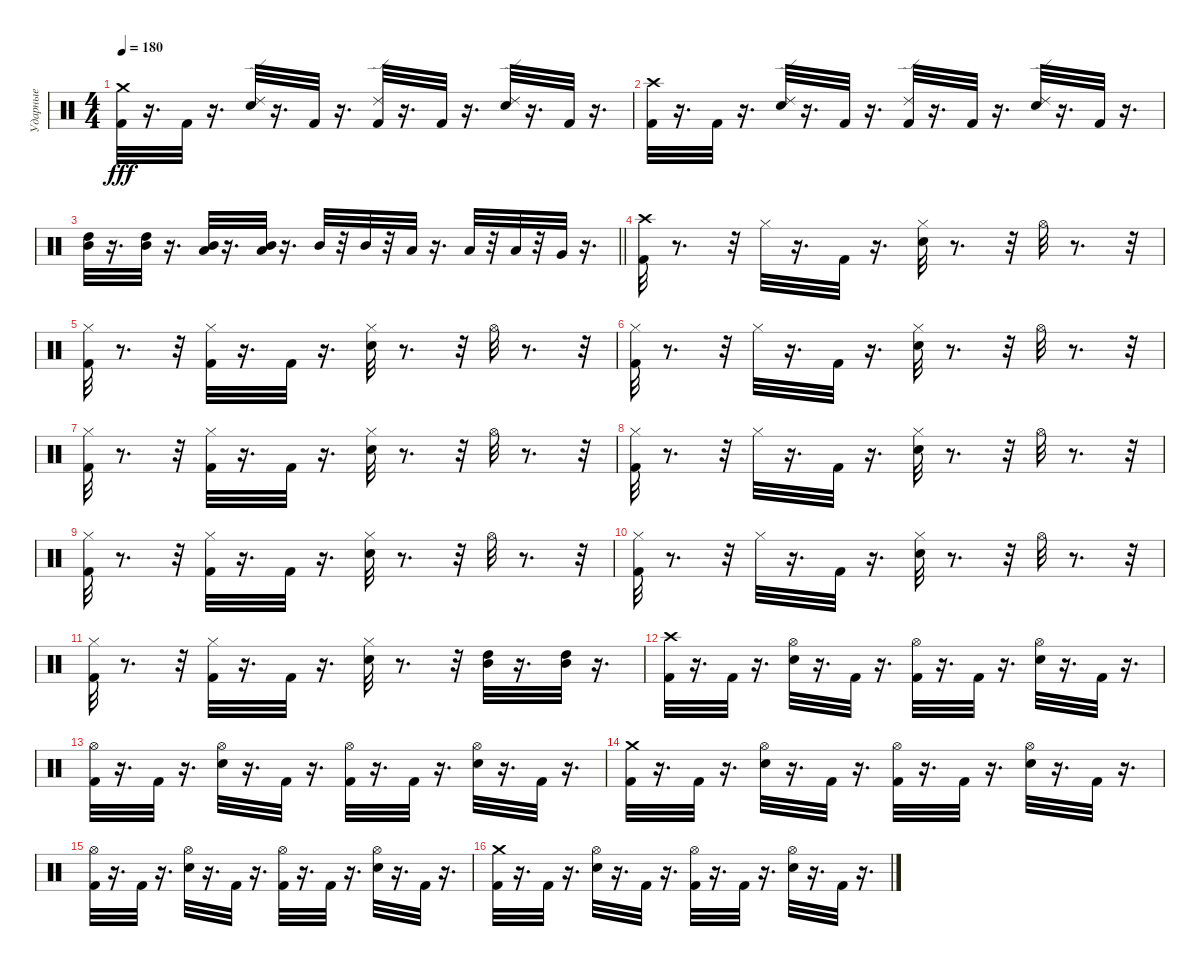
\track ("Ударные" "Ударные") {instrument percussion}
\staff {score}
\articulation defaults
\ts (4 4)
\tempo 180
\clef neutral
\ks c
("Crash medium (hit)" "Kick (hit) 2").32{dy fff} r.16{d} "Kick (hit) 2".32 r.16{d} ("Ride (edge) 2" "Snare (hit) 2").32 r.16{d} "Kick (hit) 2".32 r.16{d} ("Kick (hit) 2" "Ride (edge) 2").32 r.16{d} "Kick (hit) 2".32 r.16{d} ("Ride (edge) 2" "Snare (hit) 2").32 r.16{d} "Kick (hit) 2".32 r.16{d} |
("Crash high (hit)" "Kick (hit) 2").32 r.16{d} "Kick (hit) 2".32 r.16{d} ("Ride (edge) 2" "Snare (hit) 2").32 r.16{d} "Kick (hit) 2".32 r.16{d} ("Kick (hit) 2" "Ride (edge) 2").32 r.16{d} "Kick (hit) 2".32 r.16{d} ("Ride (edge) 2" "Snare (hit) 2").32 r.16{d} "Kick (hit) 2".32 r.16{d} |
\barLineRight lightlight
("High Tom (hit)" "Mid Tom (hit)").32 r.16{d} ("High Tom (hit)" "Mid Tom (hit)").32 r.16{d} ("Low Tom (hit)" "Mid Tom (hit)").32 r.16{d} ("Low Tom (hit)" "Mid Tom (hit)").32 r.16{d} "Mid Tom (hit)".32 r.32 "Mid Tom (hit)".32 r.32 "Low Tom (hit)".32 r.16{d} "Low Tom (hit)".32 r.32 "Low Tom (hit)".32 r.32 "Very Low Tom (hit)".32 r.16{d} |
("Crash high (hit)" "Kick (hit) 2").32 r.8{d} r.32 "Hi-Hat (closed)".32 r.16{d} "Kick (hit) 2".32 r.16{d} ("Snare (hit) 2" "Hi-Hat (closed)").32 r.8{d} r.32 "Hi-Hat (open)".32 r.8{d} r.32 |
("Kick (hit) 2" "Hi-Hat (closed)").32 r.8{d} r.32 ("Hi-Hat (closed)" "Kick (hit) 2").32 r.16{d} "Kick (hit) 2".32 r.16{d} ("Snare (hit) 2" "Hi-Hat (closed)").32 r.8{d} r.32 "Hi-Hat (open)".32 r.8{d} r.32 |
("Hi-Hat (closed)" "Kick (hit) 2").32 r.8{d} r.32 "Hi-Hat (closed)".32 r.16{d} "Kick (hit) 2".32 r.16{d} ("Snare (hit) 2" "Hi-Hat (closed)").32 r.8{d} r.32 "Hi-Hat (open)".32 r.8{d} r.32 |
("Hi-Hat (closed)" "Kick (hit) 2").32 r.8{d} r.32 ("Hi-Hat (closed)" "Kick (hit) 2").32 r.16{d} "Kick (hit) 2".32 r.16{d} ("Hi-Hat (closed)" "Snare (hit) 2").32 r.8{d} r.32 "Hi-Hat (open)".32 r.8{d} r.32 |
("Kick (hit) 2" "Hi-Hat (closed)").32 r.8{d} r.32 "Hi-Hat (closed)".32 r.16{d} "Kick (hit) 2".32 r.16{d} ("Snare (hit) 2" "Hi-Hat (closed)").32 r.8{d} r.32 "Hi-Hat (open)".32 r.8{d} r.32 |
("Kick (hit) 2" "Hi-Hat (closed)").32 r.8{d} r.32 ("Hi-Hat (closed)" "Kick (hit) 2").32 r.16{d} "Kick (hit) 2".32 r.16{d} ("Hi-Hat (closed)" "Snare (hit) 2").32 r.8{d} r.32 "Hi-Hat (open)".32 r.8{d} r.32 |
("Kick (hit) 2" "Hi-Hat (closed)").32 r.8{d} r.32 "Hi-Hat (closed)".32 r.16{d} "Kick (hit) 2".32 r.16{d} ("Snare (hit) 2" "Hi-Hat (closed)").32 r.8{d} r.32 "Hi-Hat (open)".32 r.8{d} r.32 |
("Hi-Hat (closed)" "Kick (hit) 2").32 r.8{d} r.32 ("Kick (hit) 2" "Hi-Hat (closed)").32 r.16{d} "Kick (hit) 2".32 r.16{d} ("Hi-Hat (closed)" "Snare (hit) 2").32 r.8{d} r.32 ("High Tom (hit)" "Mid Tom (hit)").32 r.16{d} ("Mid Tom (hit)" "High Tom (hit)").32 r.16{d} |
("Kick (hit) 2" "Crash high (hit)").32 r.16{d} "Kick (hit) 2".32 r.16{d} ("Snare (hit) 2" "Hi-Hat (open)").32 r.16{d} "Kick (hit) 2".32 r.16{d} ("Hi-Hat (open)" "Kick (hit) 2").32 r.16{d} "Kick (hit) 2".32 r.16{d} ("Hi-Hat (open)" "Snare (hit) 2").32 r.16{d} "Kick (hit) 2".32 r.16{d} |
("Kick (hit) 2" "Hi-Hat (open)").32 r.16{d} "Kick (hit) 2".32 r.16{d} ("Hi-Hat (open)" "Snare (hit) 2").32 r.16{d} "Kick (hit) 2".32 r.16{d} ("Kick (hit) 2" "Hi-Hat (open)").32 r.16{d} "Kick (hit) 2".32 r.16{d} ("Hi-Hat (open)" "Snare (hit) 2").32 r.16{d} "Kick (hit) 2".32 r.16{d} |
("Crash medium (hit)" "Kick (hit) 2").32 r.16{d} "Kick (hit) 2".32 r.16{d} ("Snare (hit) 2" "Hi-Hat (open)").32 r.16{d} "Kick (hit) 2".32 r.16{d} ("Kick (hit) 2" "Hi-Hat (open)").32 r.16{d} "Kick (hit) 2".32 r.16{d} ("Snare (hit) 2" "Hi-Hat (open)").32 r.16{d} "Kick (hit) 2".32 r.16{d} |
("Kick (hit) 2" "Hi-Hat (open)").32 r.16{d} "Kick (hit) 2".32 r.16{d} ("Snare (hit) 2" "Hi-Hat (open)").32 r.16{d} "Kick (hit) 2".32 r.16{d} ("Kick (hit) 2" "Hi-Hat (open)").32 r.16{d} "Kick (hit) 2".32 r.16{d} ("Snare (hit) 2" "Hi-Hat (open)").32 r.16{d} "Kick (hit) 2".32 r.16{d} |
("Kick (hit) 2" "Crash medium (hit)").32 r.16{d} "Kick (hit) 2".32 r.16{d} ("Hi-Hat (open)" "Snare (hit) 2").32 r.16{d} "Kick (hit) 2".32 r.16{d} ("Hi-Hat (open)" "Kick (hit) 2").32 r.16{d} "Kick (hit) 2".32 r.16{d} ("Snare (hit) 2" "Hi-Hat (open)").32 r.16{d} "Kick (hit) 2".32 r.16{d}
